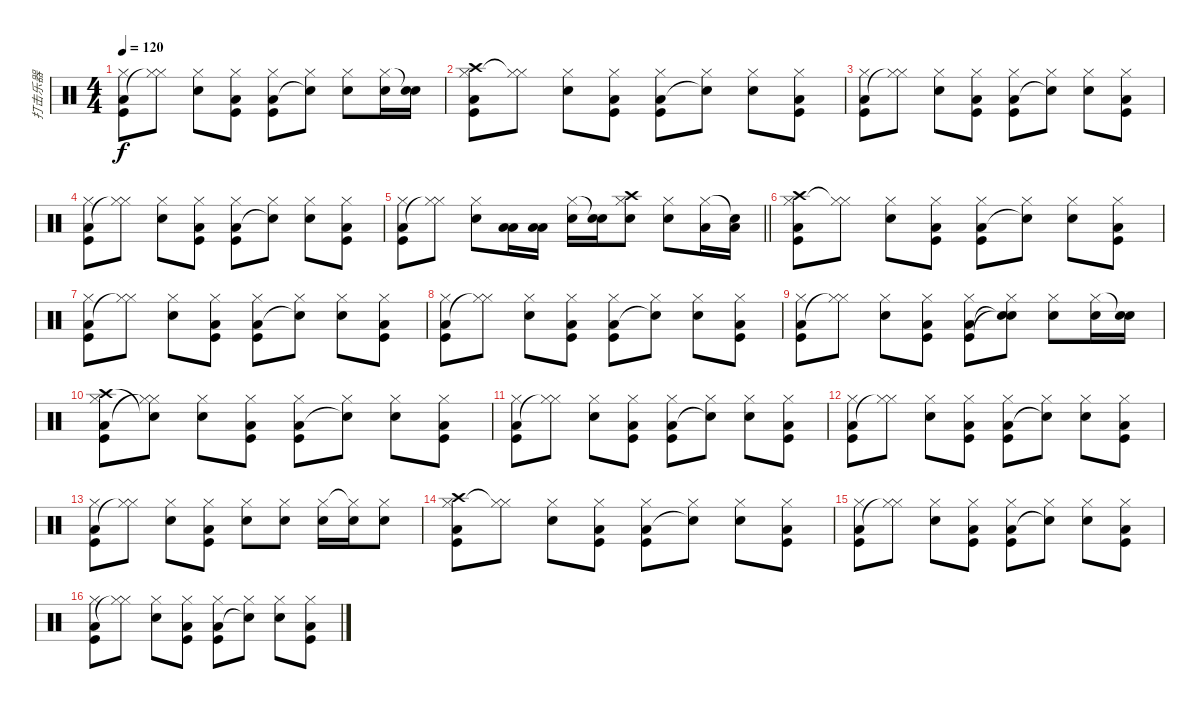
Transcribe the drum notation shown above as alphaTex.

\track ("打击乐器" "打击乐器") {instrument percussion}
\staff {score}
\articulation defaults
\ts (4 4)
\tempo 120
\clef neutral
\ks c
("Hi-Hat (closed)" "Low Floor Tom (hit)" "Kick (hit)").8{dy f} ("Hi-Hat (closed)" "Hi-Hat (closed)"{t}).8 ("Hi-Hat (closed)" "Electric Snare (hit)").8 ("Hi-Hat (closed)" "Low Floor Tom (hit)" "Kick (hit)").8 ("Hi-Hat (closed)" "Low Floor Tom (hit)" "Kick (hit)").8 ("Hi-Hat (closed)" "Snare (hit)"{t}).8 ("Hi-Hat (closed)" "Electric Snare (hit)").8 ("Hi-Hat (closed)" "Electric Snare (hit)").16 ("Snare (hit)"{t} "Electric Snare (hit)").16 |
("Crash high (hit)" "Hi-Hat (closed)" "Low Floor Tom (hit)" "Kick (hit)").8 ("Hi-Hat (closed)" "Hi-Hat (closed)"{t}).8 ("Hi-Hat (closed)" "Electric Snare (hit)").8 ("Hi-Hat (closed)" "Low Floor Tom (hit)" "Kick (hit)").8 ("Hi-Hat (closed)" "Low Floor Tom (hit)" "Kick (hit)").8 ("Hi-Hat (closed)" "Snare (hit)"{t}).8 ("Hi-Hat (closed)" "Electric Snare (hit)").8 ("Hi-Hat (closed)" "Low Floor Tom (hit)" "Kick (hit)").8 |
("Hi-Hat (closed)" "Low Floor Tom (hit)" "Kick (hit)").8 ("Hi-Hat (closed)" "Hi-Hat (closed)"{t}).8 ("Hi-Hat (closed)" "Electric Snare (hit)").8 ("Hi-Hat (closed)" "Low Floor Tom (hit)" "Kick (hit)").8 ("Hi-Hat (closed)" "Low Floor Tom (hit)" "Kick (hit)").8 ("Hi-Hat (closed)" "Snare (hit)"{t}).8 ("Hi-Hat (closed)" "Electric Snare (hit)").8 ("Hi-Hat (closed)" "Low Floor Tom (hit)" "Kick (hit)").8 |
("Hi-Hat (closed)" "Low Floor Tom (hit)" "Kick (hit)").8 ("Hi-Hat (closed)" "Hi-Hat (closed)"{t}).8 ("Hi-Hat (closed)" "Electric Snare (hit)").8 ("Hi-Hat (closed)" "Low Floor Tom (hit)" "Kick (hit)").8 ("Hi-Hat (closed)" "Low Floor Tom (hit)" "Kick (hit)").8 ("Hi-Hat (closed)" "Snare (hit)"{t}).8 ("Hi-Hat (closed)" "Electric Snare (hit)").8 ("Hi-Hat (closed)" "Low Floor Tom (hit)" "Kick (hit)").8 |
\barLineRight lightlight
("Hi-Hat (closed)" "Low Floor Tom (hit)" "Kick (hit)").8 ("Hi-Hat (closed)" "Hi-Hat (closed)"{t}).8 ("Hi-Hat (closed)" "Electric Snare (hit)").8 ("Low Floor Tom (hit)" "Low Tom (hit)").16 ("Low Floor Tom (hit)" "Low Tom (hit)").16 ("Hi-Hat (closed)" "Electric Snare (hit)").16 ("Snare (hit)"{t} "Electric Snare (hit)").16 ("Crash high (hit)" "Hi-Hat (closed)" "Electric Snare (hit)").8 ("Hi-Hat (closed)" "Electric Snare (hit)").8 ("Hi-Hat (closed)" "Low Tom (hit)").16 ("Snare (hit)"{t} "Low Tom (hit)").16 |
("Crash high (hit)" "Hi-Hat (closed)" "Low Floor Tom (hit)" "Kick (hit)").8 ("Hi-Hat (closed)" "Hi-Hat (closed)"{t}).8 ("Hi-Hat (closed)" "Electric Snare (hit)").8 ("Hi-Hat (closed)" "Low Floor Tom (hit)" "Kick (hit)").8 ("Hi-Hat (closed)" "Low Floor Tom (hit)" "Kick (hit)").8 ("Hi-Hat (closed)" "Snare (hit)"{t}).8 ("Hi-Hat (closed)" "Electric Snare (hit)").8 ("Hi-Hat (closed)" "Low Floor Tom (hit)" "Kick (hit)").8 |
("Hi-Hat (closed)" "Low Floor Tom (hit)" "Kick (hit)").8 ("Hi-Hat (closed)" "Hi-Hat (closed)"{t}).8 ("Hi-Hat (closed)" "Electric Snare (hit)").8 ("Hi-Hat (closed)" "Low Floor Tom (hit)" "Kick (hit)").8 ("Hi-Hat (closed)" "Low Floor Tom (hit)" "Kick (hit)").8 ("Hi-Hat (closed)" "Snare (hit)"{t}).8 ("Hi-Hat (closed)" "Electric Snare (hit)").8 ("Hi-Hat (closed)" "Low Floor Tom (hit)" "Kick (hit)").8 |
("Hi-Hat (closed)" "Low Floor Tom (hit)" "Kick (hit)").8 ("Hi-Hat (closed)" "Hi-Hat (closed)"{t}).8 ("Hi-Hat (closed)" "Electric Snare (hit)").8 ("Hi-Hat (closed)" "Low Floor Tom (hit)" "Kick (hit)").8 ("Hi-Hat (closed)" "Low Floor Tom (hit)" "Kick (hit)").8 ("Hi-Hat (closed)" "Snare (hit)"{t}).8 ("Hi-Hat (closed)" "Electric Snare (hit)").8 ("Hi-Hat (closed)" "Low Floor Tom (hit)" "Kick (hit)").8 |
("Hi-Hat (closed)" "Low Floor Tom (hit)" "Kick (hit)").8 ("Hi-Hat (closed)" "Hi-Hat (closed)"{t}).8 ("Hi-Hat (closed)" "Electric Snare (hit)").8 ("Hi-Hat (closed)" "Low Floor Tom (hit)" "Kick (hit)").8 ("Hi-Hat (closed)" "Low Floor Tom (hit)" "Kick (hit)").8 ("Hi-Hat (closed)" "Snare (hit)"{t} "Snare (hit)"{t}).8 ("Hi-Hat (closed)" "Electric Snare (hit)").8 ("Hi-Hat (closed)" "Electric Snare (hit)").16 ("Snare (hit)"{t} "Electric Snare (hit)").16 |
("Crash high (hit)" "Hi-Hat (closed)" "Low Floor Tom (hit)" "Kick (hit)").8 ("Snare (hit)"{t} "Hi-Hat (closed)" "Hi-Hat (closed)"{t}).8 ("Hi-Hat (closed)" "Electric Snare (hit)").8 ("Hi-Hat (closed)" "Low Floor Tom (hit)" "Kick (hit)").8 ("Hi-Hat (closed)" "Low Floor Tom (hit)" "Kick (hit)").8 ("Hi-Hat (closed)" "Snare (hit)"{t}).8 ("Hi-Hat (closed)" "Electric Snare (hit)").8 ("Hi-Hat (closed)" "Low Floor Tom (hit)" "Kick (hit)").8 |
("Hi-Hat (closed)" "Low Floor Tom (hit)" "Kick (hit)").8 ("Hi-Hat (closed)" "Hi-Hat (closed)"{t}).8 ("Hi-Hat (closed)" "Electric Snare (hit)").8 ("Hi-Hat (closed)" "Low Floor Tom (hit)" "Kick (hit)").8 ("Hi-Hat (closed)" "Low Floor Tom (hit)" "Kick (hit)").8 ("Hi-Hat (closed)" "Snare (hit)"{t}).8 ("Hi-Hat (closed)" "Electric Snare (hit)").8 ("Hi-Hat (closed)" "Low Floor Tom (hit)" "Kick (hit)").8 |
("Hi-Hat (closed)" "Low Floor Tom (hit)" "Kick (hit)").8 ("Hi-Hat (closed)" "Hi-Hat (closed)"{t}).8 ("Hi-Hat (closed)" "Electric Snare (hit)").8 ("Hi-Hat (closed)" "Low Floor Tom (hit)" "Kick (hit)").8 ("Hi-Hat (closed)" "Low Floor Tom (hit)" "Kick (hit)").8 ("Hi-Hat (closed)" "Snare (hit)"{t}).8 ("Hi-Hat (closed)" "Electric Snare (hit)").8 ("Hi-Hat (closed)" "Low Floor Tom (hit)" "Kick (hit)").8 |
("Hi-Hat (closed)" "Low Floor Tom (hit)" "Kick (hit)").8 ("Hi-Hat (closed)" "Hi-Hat (closed)"{t}).8 ("Hi-Hat (closed)" "Electric Snare (hit)").8 ("Hi-Hat (closed)" "Low Floor Tom (hit)" "Kick (hit)").8 ("Hi-Hat (closed)" "Electric Snare (hit)").8 ("Hi-Hat (closed)" "Electric Snare (hit)").8 ("Hi-Hat (closed)" "Electric Snare (hit)").16 ("Hi-Hat (closed)"{t} "Electric Snare (hit)").16 ("Hi-Hat (closed)" "Electric Snare (hit)").8 |
("Crash high (hit)" "Hi-Hat (closed)" "Low Floor Tom (hit)" "Kick (hit)").8 ("Hi-Hat (closed)" "Hi-Hat (closed)"{t}).8 ("Hi-Hat (closed)" "Electric Snare (hit)").8 ("Hi-Hat (closed)" "Low Floor Tom (hit)" "Kick (hit)").8 ("Hi-Hat (closed)" "Low Floor Tom (hit)" "Kick (hit)").8 ("Hi-Hat (closed)" "Snare (hit)"{t}).8 ("Hi-Hat (closed)" "Electric Snare (hit)").8 ("Hi-Hat (closed)" "Low Floor Tom (hit)" "Kick (hit)").8 |
("Hi-Hat (closed)" "Low Floor Tom (hit)" "Kick (hit)").8 ("Hi-Hat (closed)" "Hi-Hat (closed)"{t}).8 ("Hi-Hat (closed)" "Electric Snare (hit)").8 ("Hi-Hat (closed)" "Low Floor Tom (hit)" "Kick (hit)").8 ("Hi-Hat (closed)" "Low Floor Tom (hit)" "Kick (hit)").8 ("Hi-Hat (closed)" "Snare (hit)"{t}).8 ("Hi-Hat (closed)" "Electric Snare (hit)").8 ("Hi-Hat (closed)" "Low Floor Tom (hit)" "Kick (hit)").8 |
("Hi-Hat (closed)" "Low Floor Tom (hit)" "Kick (hit)").8 ("Hi-Hat (closed)" "Hi-Hat (closed)"{t}).8 ("Hi-Hat (closed)" "Electric Snare (hit)").8 ("Hi-Hat (closed)" "Low Floor Tom (hit)" "Kick (hit)").8 ("Hi-Hat (closed)" "Low Floor Tom (hit)" "Kick (hit)").8 ("Hi-Hat (closed)" "Snare (hit)"{t}).8 ("Hi-Hat (closed)" "Electric Snare (hit)").8 ("Hi-Hat (closed)" "Low Floor Tom (hit)" "Kick (hit)").8
